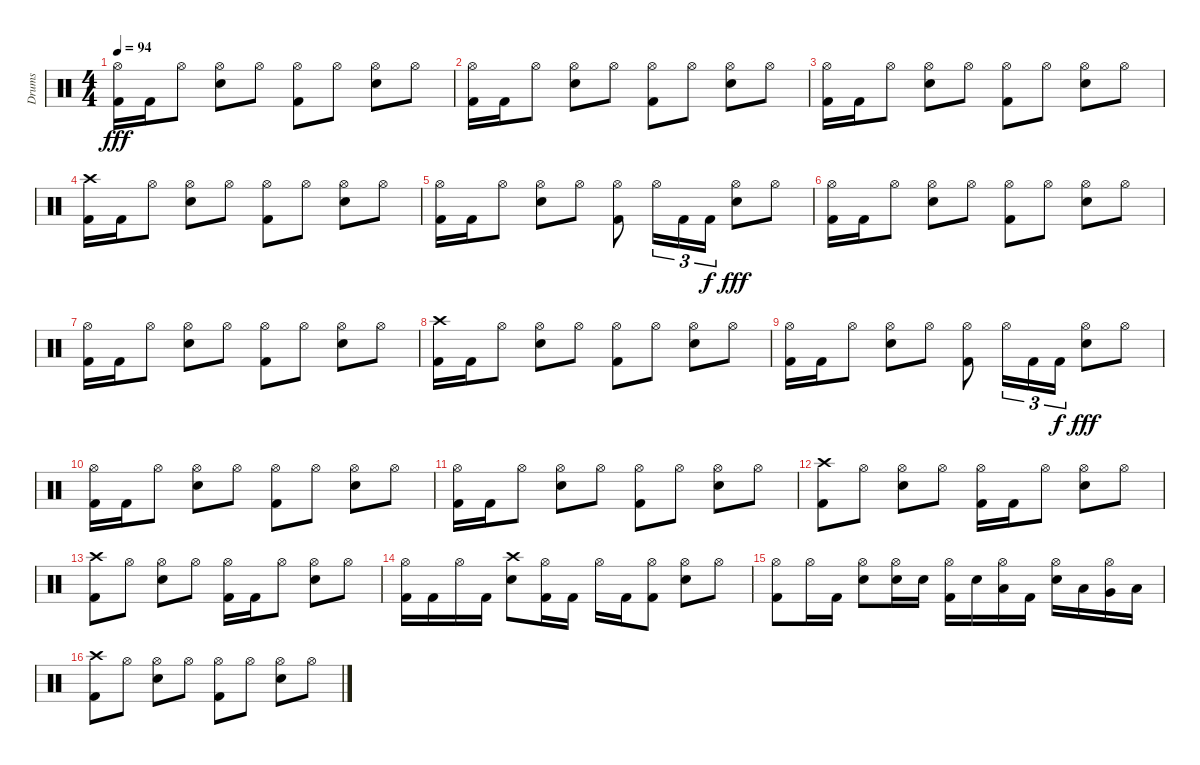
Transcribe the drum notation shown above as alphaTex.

\track ("Drums" "Drums") {instrument percussion}
\staff {score}
\articulation defaults
\ts (4 4)
\tempo 94
\clef neutral
\ks c
("Kick (hit) 2" "Hi-Hat (open)").16{dy fff} "Kick (hit) 2".16 "Hi-Hat (open)".8 ("Snare (hit) 2" "Hi-Hat (open)").8 "Hi-Hat (open)".8 ("Kick (hit) 2" "Hi-Hat (open)").8 "Hi-Hat (open)".8 ("Snare (hit) 2" "Hi-Hat (open)").8 "Hi-Hat (open)".8 |
("Kick (hit) 2" "Hi-Hat (open)").16 "Kick (hit) 2".16 "Hi-Hat (open)".8 ("Snare (hit) 2" "Hi-Hat (open)").8 "Hi-Hat (open)".8 ("Kick (hit) 2" "Hi-Hat (open)").8 "Hi-Hat (open)".8 ("Snare (hit) 2" "Hi-Hat (open)").8 "Hi-Hat (open)".8 |
("Kick (hit) 2" "Hi-Hat (open)").16 "Kick (hit) 2".16 "Hi-Hat (open)".8 ("Snare (hit) 2" "Hi-Hat (open)").8 "Hi-Hat (open)".8 ("Kick (hit) 2" "Hi-Hat (open)").8 "Hi-Hat (open)".8 ("Snare (hit) 2" "Hi-Hat (open)").8 "Hi-Hat (open)".8 |
("Kick (hit) 2" "Crash high (hit)").16 "Kick (hit) 2".16 "Hi-Hat (open)".8 ("Snare (hit) 2" "Hi-Hat (open)").8 "Hi-Hat (open)".8 ("Kick (hit) 2" "Hi-Hat (open)").8 "Hi-Hat (open)".8 ("Snare (hit) 2" "Hi-Hat (open)").8 "Hi-Hat (open)".8 |
("Kick (hit) 2" "Hi-Hat (open)").16 "Kick (hit) 2".16 "Hi-Hat (open)".8 ("Snare (hit) 2" "Hi-Hat (open)").8 "Hi-Hat (open)".8 ("Kick (hit) 2" "Hi-Hat (open)").8 "Hi-Hat (open)".16{tu (3 2)} "Kick (hit) 2".16{tu (3 2)} "Kick (hit) 2".16{tu (3 2) dy f} ("Snare (hit) 2" "Hi-Hat (open)").8{dy fff} "Hi-Hat (open)".8 |
("Kick (hit) 2" "Hi-Hat (open)").16 "Kick (hit) 2".16 "Hi-Hat (open)".8 ("Snare (hit) 2" "Hi-Hat (open)").8 "Hi-Hat (open)".8 ("Kick (hit) 2" "Hi-Hat (open)").8 "Hi-Hat (open)".8 ("Snare (hit) 2" "Hi-Hat (open)").8 "Hi-Hat (open)".8 |
("Kick (hit) 2" "Hi-Hat (open)").16 "Kick (hit) 2".16 "Hi-Hat (open)".8 ("Snare (hit) 2" "Hi-Hat (open)").8 "Hi-Hat (open)".8 ("Kick (hit) 2" "Hi-Hat (open)").8 "Hi-Hat (open)".8 ("Snare (hit) 2" "Hi-Hat (open)").8 "Hi-Hat (open)".8 |
("Kick (hit) 2" "Crash high (hit)").16 "Kick (hit) 2".16 "Hi-Hat (open)".8 ("Snare (hit) 2" "Hi-Hat (open)").8 "Hi-Hat (open)".8 ("Kick (hit) 2" "Hi-Hat (open)").8 "Hi-Hat (open)".8 ("Snare (hit) 2" "Hi-Hat (open)").8 "Hi-Hat (open)".8 |
("Kick (hit) 2" "Hi-Hat (open)").16 "Kick (hit) 2".16 "Hi-Hat (open)".8 ("Snare (hit) 2" "Hi-Hat (open)").8 "Hi-Hat (open)".8 ("Kick (hit) 2" "Hi-Hat (open)").8 "Hi-Hat (open)".16{tu (3 2)} "Kick (hit) 2".16{tu (3 2)} "Kick (hit) 2".16{tu (3 2) dy f} ("Snare (hit) 2" "Hi-Hat (open)").8{dy fff} "Hi-Hat (open)".8 |
("Kick (hit) 2" "Hi-Hat (open)").16 "Kick (hit) 2".16 "Hi-Hat (open)".8 ("Snare (hit) 2" "Hi-Hat (open)").8 "Hi-Hat (open)".8 ("Kick (hit) 2" "Hi-Hat (open)").8 "Hi-Hat (open)".8 ("Snare (hit) 2" "Hi-Hat (open)").8 "Hi-Hat (open)".8 |
("Kick (hit) 2" "Hi-Hat (open)").16 "Kick (hit) 2".16 "Hi-Hat (open)".8 ("Snare (hit) 2" "Hi-Hat (open)").8 "Hi-Hat (open)".8 ("Kick (hit) 2" "Hi-Hat (open)").8 "Hi-Hat (open)".8 ("Snare (hit) 2" "Hi-Hat (open)").8 "Hi-Hat (open)".8 |
("Kick (hit) 2" "Crash high (hit)").8 "Hi-Hat (open)".8 ("Snare (hit) 2" "Hi-Hat (open)").8 "Hi-Hat (open)".8 ("Kick (hit) 2" "Hi-Hat (open)").16 "Kick (hit) 2".16 "Hi-Hat (open)".8 ("Snare (hit) 2" "Hi-Hat (open)").8 "Hi-Hat (open)".8 |
("Kick (hit) 2" "Crash high (hit)").8 "Hi-Hat (open)".8 ("Snare (hit) 2" "Hi-Hat (open)").8 "Hi-Hat (open)".8 ("Kick (hit) 2" "Hi-Hat (open)").16 "Kick (hit) 2".16 "Hi-Hat (open)".8 ("Snare (hit) 2" "Hi-Hat (open)").8 "Hi-Hat (open)".8 |
("Kick (hit) 2" "Hi-Hat (open)").16 "Kick (hit) 2".16 "Hi-Hat (open)".16 "Kick (hit) 2".16 ("Snare (hit) 2" "Crash high (hit)").8 ("Kick (hit) 2" "Hi-Hat (open)").16 "Kick (hit) 2".16 "Hi-Hat (open)".16 "Kick (hit) 2".16 ("Kick (hit) 2" "Hi-Hat (open)").8 ("Snare (hit) 2" "Hi-Hat (open)").8 "Hi-Hat (open)".8 |
("Kick (hit) 2" "Hi-Hat (open)").8 "Hi-Hat (open)".16 "Kick (hit) 2".16 ("Snare (hit) 2" "Hi-Hat (open)").8 ("Snare (hit) 2" "Hi-Hat (open)").16 "Snare (hit) 2".16 ("Kick (hit) 2" "Hi-Hat (open)").16 "Snare (hit) 2".16 ("Low Tom (hit)" "Hi-Hat (open)").16 "Kick (hit) 2".16 ("Snare (hit) 2" "Hi-Hat (open)").16 "Low Tom (hit)".16 ("Very Low Tom (hit)" "Hi-Hat (open)").16 "Low Floor Tom (hit)".16 |
("Kick (hit) 2" "Crash high (hit)").8 "Hi-Hat (open)".8 ("Snare (hit) 2" "Hi-Hat (open)").8 "Hi-Hat (open)".8 ("Kick (hit) 2" "Hi-Hat (open)").8 "Hi-Hat (open)".8 ("Snare (hit) 2" "Hi-Hat (open)").8 "Hi-Hat (open)".8
